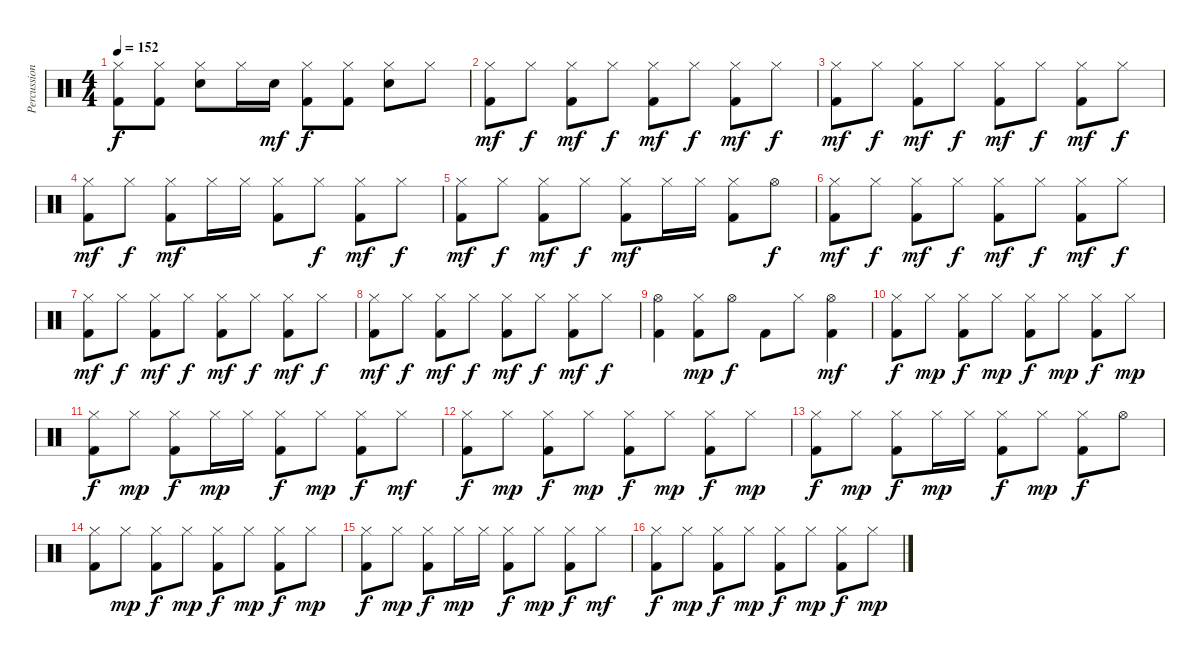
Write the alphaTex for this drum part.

\track ("Percussion" "Percussion") {instrument percussion}
\staff {score}
\articulation defaults
\ts (4 4)
\tempo 152
\clef neutral
\ks c
("Kick (hit) 2" "Hi-Hat (closed)").8{dy f} ("Kick (hit) 2" "Hi-Hat (closed)").8 ("Electric Snare (hit)" "Hi-Hat (closed)").8 "Hi-Hat (closed)".16 "Electric Snare (hit)".16{dy mf} ("Kick (hit) 2" "Hi-Hat (closed)").8{dy f} ("Kick (hit) 2" "Hi-Hat (closed)").8 ("Electric Snare (hit)" "Hi-Hat (closed)").8 "Hi-Hat (closed)".8 |
("Kick (hit) 2" "Hi-Hat (closed)").8{dy mf} "Hi-Hat (closed)".8{dy f} ("Kick (hit) 2" "Hi-Hat (closed)").8{dy mf} "Hi-Hat (closed)".8{dy f} ("Kick (hit) 2" "Hi-Hat (closed)").8{dy mf} "Hi-Hat (closed)".8{dy f} ("Kick (hit) 2" "Hi-Hat (closed)").8{dy mf} "Hi-Hat (closed)".8{dy f} |
("Kick (hit) 2" "Hi-Hat (closed)").8{dy mf} "Hi-Hat (closed)".8{dy f} ("Kick (hit) 2" "Hi-Hat (closed)").8{dy mf} "Hi-Hat (closed)".8{dy f} ("Kick (hit) 2" "Hi-Hat (closed)").8{dy mf} "Hi-Hat (closed)".8{dy f} ("Kick (hit) 2" "Hi-Hat (closed)").8{dy mf} "Hi-Hat (closed)".8{dy f} |
("Kick (hit) 2" "Hi-Hat (closed)").8{dy mf} "Hi-Hat (closed)".8{dy f} ("Kick (hit) 2" "Hi-Hat (closed)").8{dy mf} "Hi-Hat (closed)".16 "Hi-Hat (closed)".16 ("Kick (hit) 2" "Hi-Hat (closed)").8 "Hi-Hat (closed)".8{dy f} ("Kick (hit) 2" "Hi-Hat (closed)").8{dy mf} "Hi-Hat (closed)".8{dy f} |
("Kick (hit) 2" "Hi-Hat (closed)").8{dy mf} "Hi-Hat (closed)".8{dy f} ("Kick (hit) 2" "Hi-Hat (closed)").8{dy mf} "Hi-Hat (closed)".8{dy f} ("Kick (hit) 2" "Hi-Hat (closed)").8{dy mf} "Hi-Hat (closed)".16 "Hi-Hat (closed)".16 ("Kick (hit) 2" "Hi-Hat (closed)").8 "Hi-Hat (open)".8{dy f} |
("Kick (hit) 2" "Hi-Hat (closed)").8{dy mf} "Hi-Hat (closed)".8{dy f} ("Kick (hit) 2" "Hi-Hat (closed)").8{dy mf} "Hi-Hat (closed)".8{dy f} ("Kick (hit) 2" "Hi-Hat (closed)").8{dy mf} "Hi-Hat (closed)".8{dy f} ("Kick (hit) 2" "Hi-Hat (closed)").8{dy mf} "Hi-Hat (closed)".8{dy f} |
("Kick (hit) 2" "Hi-Hat (closed)").8{dy mf} "Hi-Hat (closed)".8{dy f} ("Kick (hit) 2" "Hi-Hat (closed)").8{dy mf} "Hi-Hat (closed)".8{dy f} ("Kick (hit) 2" "Hi-Hat (closed)").8{dy mf} "Hi-Hat (closed)".8{dy f} ("Kick (hit) 2" "Hi-Hat (closed)").8{dy mf} "Hi-Hat (closed)".8{dy f} |
("Kick (hit) 2" "Hi-Hat (closed)").8{dy mf} "Hi-Hat (closed)".8{dy f} ("Kick (hit) 2" "Hi-Hat (closed)").8{dy mf} "Hi-Hat (closed)".8{dy f} ("Kick (hit) 2" "Hi-Hat (closed)").8{dy mf} "Hi-Hat (closed)".8{dy f} ("Kick (hit) 2" "Hi-Hat (closed)").8{dy mf} "Hi-Hat (closed)".8{dy f} |
("Kick (hit) 2" "Hi-Hat (open)").4 ("Kick (hit) 2" "Hi-Hat (closed)").8{dy mp} "Hi-Hat (open)".8{dy f} "Kick (hit) 2".8 "Hi-Hat (closed)".8 ("Hi-Hat (open)" "Kick (hit) 2").4{dy mf} |
("Kick (hit) 2" "Hi-Hat (closed)").8{dy f} "Hi-Hat (closed)".8{dy mp} ("Kick (hit) 2" "Hi-Hat (closed)").8{dy f} "Hi-Hat (closed)".8{dy mp} ("Kick (hit) 2" "Hi-Hat (closed)").8{dy f} "Hi-Hat (closed)".8{dy mp} ("Kick (hit) 2" "Hi-Hat (closed)").8{dy f} "Hi-Hat (closed)".8{dy mp} |
("Kick (hit) 2" "Hi-Hat (closed)").8{dy f} "Hi-Hat (closed)".8{dy mp} ("Kick (hit) 2" "Hi-Hat (closed)").8{dy f} "Hi-Hat (closed)".16{dy mp} "Hi-Hat (closed)".16 ("Kick (hit) 2" "Hi-Hat (closed)").8{dy f} "Hi-Hat (closed)".8{dy mp} ("Hi-Hat (closed)" "Kick (hit) 2").8{dy f} "Hi-Hat (closed)".8{dy mf} |
("Kick (hit) 2" "Hi-Hat (closed)").8{dy f} "Hi-Hat (closed)".8{dy mp} ("Kick (hit) 2" "Hi-Hat (closed)").8{dy f} "Hi-Hat (closed)".8{dy mp} ("Kick (hit) 2" "Hi-Hat (closed)").8{dy f} "Hi-Hat (closed)".8{dy mp} ("Kick (hit) 2" "Hi-Hat (closed)").8{dy f} "Hi-Hat (closed)".8{dy mp} |
("Kick (hit) 2" "Hi-Hat (closed)").8{dy f} "Hi-Hat (closed)".8{dy mp} ("Kick (hit) 2" "Hi-Hat (closed)").8{dy f} "Hi-Hat (closed)".16{dy mp} "Hi-Hat (closed)".16 ("Kick (hit) 2" "Hi-Hat (closed)").8{dy f} "Hi-Hat (closed)".8{dy mp} ("Hi-Hat (closed)" "Kick (hit) 2").8{dy f} "Hi-Hat (open)".8 |
("Kick (hit) 2" "Hi-Hat (closed)").8 "Hi-Hat (closed)".8{dy mp} ("Kick (hit) 2" "Hi-Hat (closed)").8{dy f} "Hi-Hat (closed)".8{dy mp} ("Kick (hit) 2" "Hi-Hat (closed)").8{dy f} "Hi-Hat (closed)".8{dy mp} ("Kick (hit) 2" "Hi-Hat (closed)").8{dy f} "Hi-Hat (closed)".8{dy mp} |
("Kick (hit) 2" "Hi-Hat (closed)").8{dy f} "Hi-Hat (closed)".8{dy mp} ("Kick (hit) 2" "Hi-Hat (closed)").8{dy f} "Hi-Hat (closed)".16{dy mp} "Hi-Hat (closed)".16 ("Kick (hit) 2" "Hi-Hat (closed)").8{dy f} "Hi-Hat (closed)".8{dy mp} ("Hi-Hat (closed)" "Kick (hit) 2").8{dy f} "Hi-Hat (closed)".8{dy mf} |
("Kick (hit) 2" "Hi-Hat (closed)").8{dy f} "Hi-Hat (closed)".8{dy mp} ("Kick (hit) 2" "Hi-Hat (closed)").8{dy f} "Hi-Hat (closed)".8{dy mp} ("Kick (hit) 2" "Hi-Hat (closed)").8{dy f} "Hi-Hat (closed)".8{dy mp} ("Kick (hit) 2" "Hi-Hat (closed)").8{dy f} "Hi-Hat (closed)".8{dy mp}
